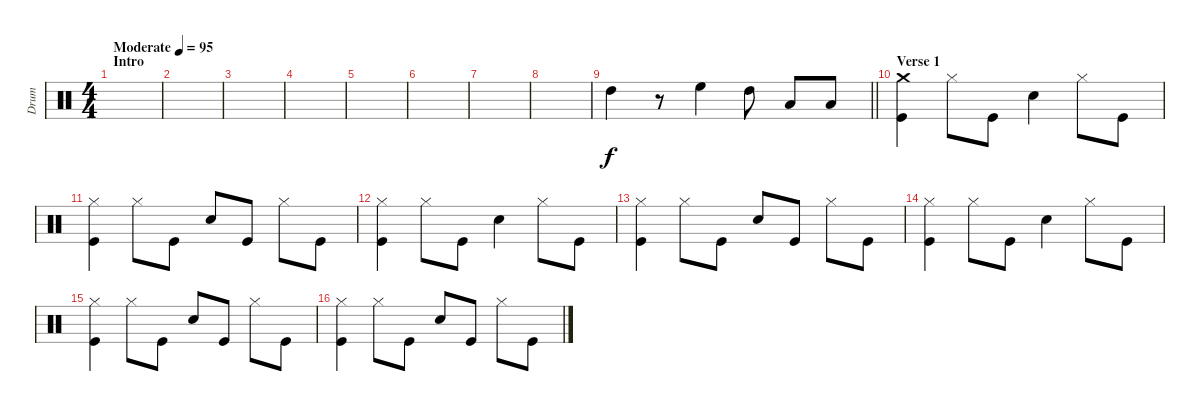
\track ("Drum" "Drum") {instrument percussion}
\staff {score}
\articulation defaults
\ts (4 4)
\section ("" "Intro")
\tempo (95 "Moderate")
\clef neutral
\ks c
|
|
|
|
|
|
|
|
\barLineRight lightlight "High Tom (hit)".4
r.8 "High Floor Tom (hit)".4 "High Tom (hit)".8 "Low Tom (hit)".8 "Low Floor Tom (hit)".8 |
\section ("" "Verse 1")
("Crash medium (hit)" "Kick (hit)").4 "Hi-Hat (closed)".8 "Kick (hit)".8 "Electric Snare (hit)".4 "Hi-Hat (closed)".8 "Kick (hit)".8 |
("Hi-Hat (closed)" "Kick (hit)").4 "Hi-Hat (closed)".8 "Kick (hit)".8 "Electric Snare (hit)".8 "Kick (hit)".8 "Hi-Hat (closed)".8 "Kick (hit)".8 |
("Hi-Hat (closed)" "Kick (hit)").4 "Hi-Hat (closed)".8 "Kick (hit)".8 "Electric Snare (hit)".4 "Hi-Hat (closed)".8 "Kick (hit)".8 |
("Hi-Hat (closed)" "Kick (hit)").4 "Hi-Hat (closed)".8 "Kick (hit)".8 "Electric Snare (hit)".8 "Kick (hit)".8 "Hi-Hat (closed)".8 "Kick (hit)".8 |
("Hi-Hat (closed)" "Kick (hit)").4 "Hi-Hat (closed)".8 "Kick (hit)".8 "Electric Snare (hit)".4 "Hi-Hat (closed)".8 "Kick (hit)".8 |
("Hi-Hat (closed)" "Kick (hit)").4 "Hi-Hat (closed)".8 "Kick (hit)".8 "Electric Snare (hit)".8 "Kick (hit)".8 "Hi-Hat (closed)".8 "Kick (hit)".8 |
("Hi-Hat (closed)" "Kick (hit)").4 "Hi-Hat (closed)".8 "Kick (hit)".8 "Electric Snare (hit)".8 "Kick (hit)".8 "Hi-Hat (closed)".8 "Kick (hit)".8
